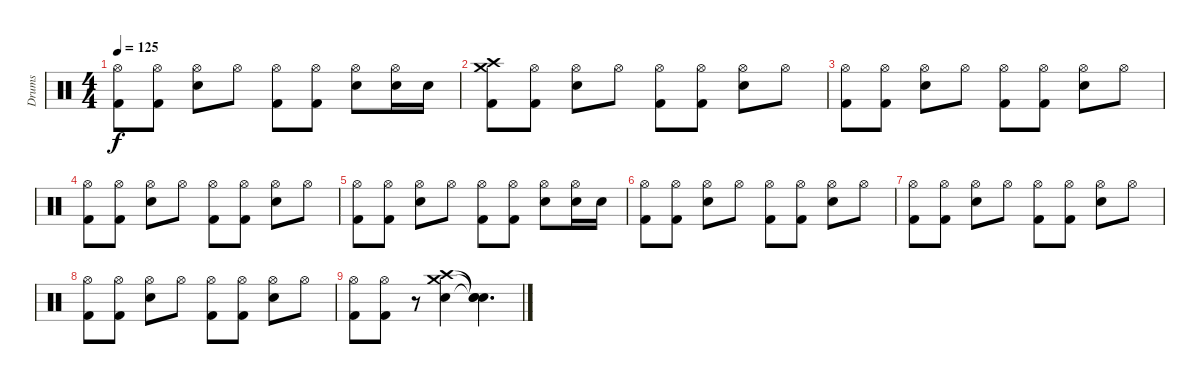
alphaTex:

\track ("Drums" "Drums") {instrument percussion}
\staff {score}
\articulation defaults
\ts (4 4)
\tempo 125
\clef neutral
\ks c
("Hi-Hat (open)" "Kick (hit) 2").8{dy f} ("Hi-Hat (open)" "Kick (hit) 2").8 ("Hi-Hat (open)" "Snare (hit) 2").8 "Hi-Hat (open)".8 ("Hi-Hat (open)" "Kick (hit) 2").8 ("Hi-Hat (open)" "Kick (hit) 2").8 ("Hi-Hat (open)" "Snare (hit) 2").8 ("Hi-Hat (open)" "Snare (hit) 2").16 "Snare (hit) 2".16 |
("Crash medium (hit)" "Crash high (hit)" "Kick (hit) 2").8 ("Hi-Hat (open)" "Kick (hit) 2").8 ("Hi-Hat (open)" "Snare (hit) 2").8 "Hi-Hat (open)".8 ("Hi-Hat (open)" "Kick (hit) 2").8 ("Hi-Hat (open)" "Kick (hit) 2").8 ("Hi-Hat (open)" "Snare (hit) 2").8 "Hi-Hat (open)".8 |
("Hi-Hat (open)" "Kick (hit) 2").8 ("Hi-Hat (open)" "Kick (hit) 2").8 ("Hi-Hat (open)" "Snare (hit) 2").8 "Hi-Hat (open)".8 ("Hi-Hat (open)" "Kick (hit) 2").8 ("Hi-Hat (open)" "Kick (hit) 2").8 ("Hi-Hat (open)" "Snare (hit) 2").8 "Hi-Hat (open)".8 |
("Hi-Hat (open)" "Kick (hit) 2").8 ("Hi-Hat (open)" "Kick (hit) 2").8 ("Hi-Hat (open)" "Snare (hit) 2").8 "Hi-Hat (open)".8 ("Hi-Hat (open)" "Kick (hit) 2").8 ("Hi-Hat (open)" "Kick (hit) 2").8 ("Hi-Hat (open)" "Snare (hit) 2").8 "Hi-Hat (open)".8 |
("Hi-Hat (open)" "Kick (hit) 2").8 ("Hi-Hat (open)" "Kick (hit) 2").8 ("Hi-Hat (open)" "Snare (hit) 2").8 "Hi-Hat (open)".8 ("Hi-Hat (open)" "Kick (hit) 2").8 ("Hi-Hat (open)" "Kick (hit) 2").8 ("Hi-Hat (open)" "Snare (hit) 2").8 ("Hi-Hat (open)" "Snare (hit) 2").16 "Snare (hit) 2".16 |
("Hi-Hat (open)" "Kick (hit) 2").8 ("Hi-Hat (open)" "Kick (hit) 2").8 ("Hi-Hat (open)" "Snare (hit) 2").8 "Hi-Hat (open)".8 ("Hi-Hat (open)" "Kick (hit) 2").8 ("Hi-Hat (open)" "Kick (hit) 2").8 ("Hi-Hat (open)" "Snare (hit) 2").8 "Hi-Hat (open)".8 |
("Hi-Hat (open)" "Kick (hit) 2").8 ("Hi-Hat (open)" "Kick (hit) 2").8 ("Hi-Hat (open)" "Snare (hit) 2").8 "Hi-Hat (open)".8 ("Hi-Hat (open)" "Kick (hit) 2").8 ("Hi-Hat (open)" "Kick (hit) 2").8 ("Hi-Hat (open)" "Snare (hit) 2").8 "Hi-Hat (open)".8 |
("Hi-Hat (open)" "Kick (hit) 2").8 ("Hi-Hat (open)" "Kick (hit) 2").8 ("Hi-Hat (open)" "Snare (hit) 2").8 "Hi-Hat (open)".8 ("Hi-Hat (open)" "Kick (hit) 2").8 ("Hi-Hat (open)" "Kick (hit) 2").8 ("Hi-Hat (open)" "Snare (hit) 2").8 "Hi-Hat (open)".8 |
("Hi-Hat (open)" "Kick (hit) 2").8 ("Hi-Hat (open)" "Kick (hit) 2").8 r.8 ("Crash medium (hit)" "Crash high (hit)" "Snare (hit) 2").4 ("Snare (hit)"{t} "Snare (hit)"{t} "Snare (hit)"{t}).4{d}
